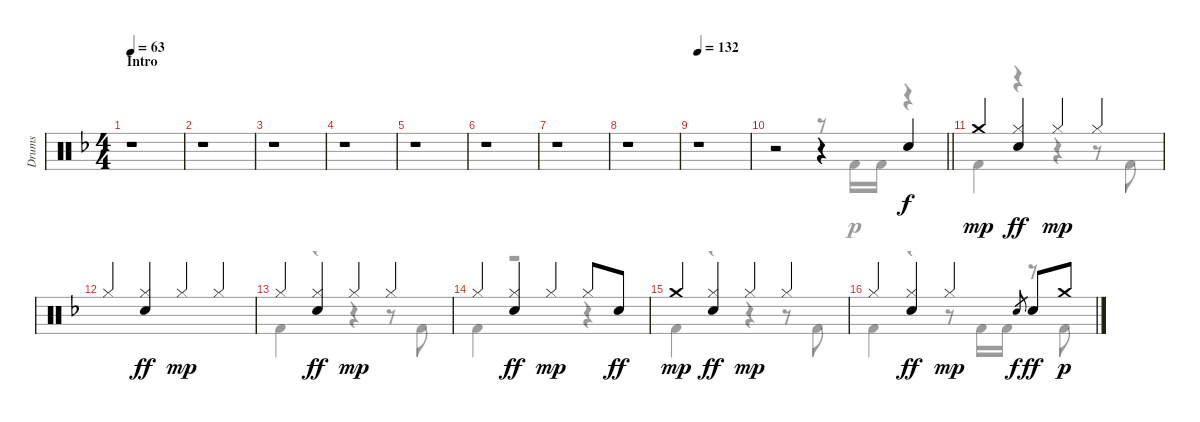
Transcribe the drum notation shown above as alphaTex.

\track ("Drums" "Drums") {instrument percussion}
\staff {score}
\articulation defaults
\voice
\ts (4 4)
\section ("" "Intro")
\tempo 63
\clef neutral
\ks f
r.1{dy f} |
r.1 |
r.1 |
r.1 |
r.1 |
r.1 |
r.1 |
r.1 |
\tempo 132
r.1 |
\barLineRight lightlight
r.2 r.4 "Electric Snare (hit)".4 |
"Crash medium (hit)".4{dy mp} ("Hi-Hat (closed)" "Electric Snare (hit)").4{dy ff} "Hi-Hat (closed)".4{dy mp} "Hi-Hat (closed)".4 |
"Hi-Hat (closed)".4{beam Up} ("Hi-Hat (closed)" "Electric Snare (hit)").4{dy ff beam Up} "Hi-Hat (closed)".4{dy mp beam Up} "Hi-Hat (closed)".4{beam Up} |
"Hi-Hat (closed)".4 ("Hi-Hat (closed)" "Electric Snare (hit)").4{dy ff} "Hi-Hat (closed)".4{dy mp} "Hi-Hat (closed)".4 |
"Hi-Hat (closed)".4 ("Hi-Hat (closed)" "Electric Snare (hit)").4{dy ff} "Hi-Hat (closed)".4{dy mp} "Hi-Hat (closed)".8 "Electric Snare (hit)".8{dy ff} |
"Crash medium (hit)".4{dy mp} ("Hi-Hat (closed)" "Electric Snare (hit)").4{dy ff} "Hi-Hat (closed)".4{dy mp} "Hi-Hat (closed)".4 |
"Hi-Hat (closed)".4 ("Hi-Hat (closed)" "Electric Snare (hit)").4{dy ff} "Hi-Hat (closed)".4{dy mp} "Electric Snare (hit)".8{gr dy f} "Electric Snare (hit)".8{dy ff} "Crash medium (hit)".8{dy p}
\voice
\clef neutral
\ottava regular
\simile none
\ks f
|
|
|
|
|
|
|
|
|
\barLineRight lightlight
r.2 r.8 "Kick (hit) 2".16 "Kick (hit) 2".16 r.4 |
"Kick (hit) 2".4 r.4 r.4 r.8 "Kick (hit) 2".8 |
|
"Kick (hit) 2".4 r.4 r.4 r.8 "Kick (hit) 2".8 |
"Kick (hit) 2".4 r.2 r.4 |
"Kick (hit) 2".4 r.4 r.4 r.8 "Kick (hit) 2".8 |
"Kick (hit) 2".4 r.4 r.8 "Kick (hit) 2".16 "Kick (hit) 2".16 r.8 "Kick (hit) 2".8
